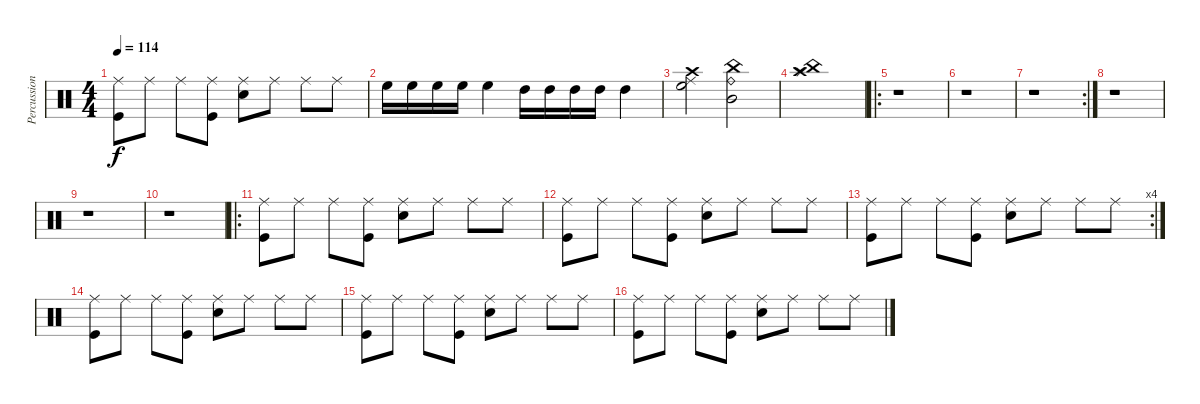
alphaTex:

\track ("Percussion" "Percussion") {instrument percussion}
\staff {score}
\articulation defaults
\ts (4 4)
\tempo 114
\clef neutral
\ks c
("Ride (middle)" "Kick (hit)").8{dy f} "Ride (middle)".8 "Ride (middle)".8 ("Ride (middle)" "Kick (hit)").8 ("Ride (middle)" "Snare (hit) 2").8 "Ride (middle)".8 "Ride (middle)".8 "Ride (middle)".8 |
"High Floor Tom (hit)".16 "High Floor Tom (hit)".16 "High Floor Tom (hit)".16 "High Floor Tom (hit)".16 "High Floor Tom (hit)".4 "High Tom (hit)".16 "High Tom (hit)".16 "High Tom (hit)".16 "High Tom (hit)".16 "High Tom (hit)".4 |
("Crash high (hit)" "High Floor Tom (hit)" "Ride (middle)").2 ("Mid Tom (hit)" "China (hit)" "Ride (bell)").2 |
("Crash high (hit)" "China (hit)" "Splash (hit)").1 |
\ro
r.1 |
r.1 |
\rc 2
r.1 |
r.1 |
r.1 |
r.1 |
\ro
("Ride (middle)" "Kick (hit)").8 "Ride (middle)".8 "Ride (middle)".8 ("Ride (middle)" "Kick (hit)").8 ("Ride (middle)" "Snare (hit) 2").8 "Ride (middle)".8 "Ride (middle)".8 "Ride (middle)".8 |
("Ride (middle)" "Kick (hit)").8 "Ride (middle)".8 "Ride (middle)".8 ("Ride (middle)" "Kick (hit)").8 ("Ride (middle)" "Snare (hit) 2").8 "Ride (middle)".8 "Ride (middle)".8 "Ride (middle)".8 |
\rc 4
("Ride (middle)" "Kick (hit)").8 "Ride (middle)".8 "Ride (middle)".8 ("Ride (middle)" "Kick (hit)").8 ("Ride (middle)" "Snare (hit) 2").8 "Ride (middle)".8 "Ride (middle)".8 "Ride (middle)".8 |
("Ride (middle)" "Kick (hit)").8 "Ride (middle)".8 "Ride (middle)".8 ("Ride (middle)" "Kick (hit)").8 ("Ride (middle)" "Snare (hit) 2").8 "Ride (middle)".8 "Ride (middle)".8 "Ride (middle)".8 |
("Ride (middle)" "Kick (hit)").8 "Ride (middle)".8 "Ride (middle)".8 ("Ride (middle)" "Kick (hit)").8 ("Ride (middle)" "Snare (hit) 2").8 "Ride (middle)".8 "Ride (middle)".8 "Ride (middle)".8 |
("Ride (middle)" "Kick (hit)").8 "Ride (middle)".8 "Ride (middle)".8 ("Ride (middle)" "Kick (hit)").8 ("Ride (middle)" "Snare (hit) 2").8 "Ride (middle)".8 "Ride (middle)".8 "Ride (middle)".8
